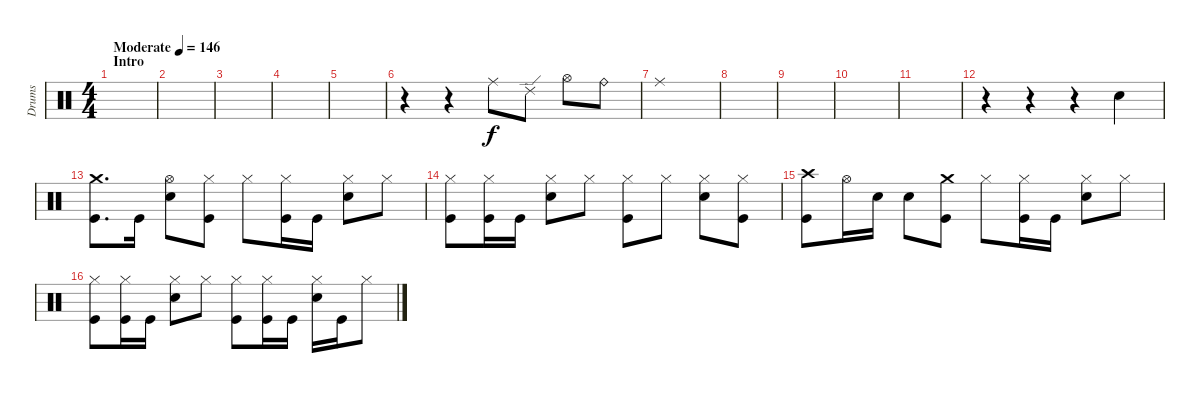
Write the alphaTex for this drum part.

\track ("Drums" "Drums") {instrument percussion}
\staff {score}
\articulation defaults
\ts (4 4)
\section ("" "Intro")
\tempo (146 "Moderate")
\clef neutral
\ks c
|
|
|
|
|
r.4 r.4 "Ride (middle)".8 "Ride (edge) 2".8 "Hi-Hat (open)".8 "Ride (bell)".8 |
"Ride (middle)".1 |
|
|
|
|
r.4 r.4 r.4 "Electric Snare (hit)".4 |
("Crash medium (hit)" "Kick (hit)").8{d} "Kick (hit)".16 ("Hi-Hat (open)" "Electric Snare (hit)").8 ("Hi-Hat (closed)" "Kick (hit)").8 "Hi-Hat (closed)".8 ("Hi-Hat (closed)" "Kick (hit)").16 "Kick (hit)".16 ("Hi-Hat (closed)" "Electric Snare (hit)").8 "Hi-Hat (closed)".8 |
("Hi-Hat (closed)" "Kick (hit)").8 ("Hi-Hat (closed)" "Kick (hit)").16 "Kick (hit)".16 ("Hi-Hat (closed)" "Electric Snare (hit)").8 "Hi-Hat (closed)".8 ("Hi-Hat (closed)" "Kick (hit)").8 "Hi-Hat (closed)".8 ("Hi-Hat (closed)" "Electric Snare (hit)").8 ("Hi-Hat (closed)" "Kick (hit)").8 |
("Crash high (hit)" "Kick (hit)").8 "Hi-Hat (open)".16 "Electric Snare (hit)".16 "Electric Snare (hit)".8 ("Crash medium (hit)" "Kick (hit)").8 "Hi-Hat (closed)".8 ("Hi-Hat (closed)" "Kick (hit)").16 "Kick (hit)".16 ("Hi-Hat (closed)" "Electric Snare (hit)").8 "Hi-Hat (closed)".8 |
("Hi-Hat (closed)" "Kick (hit)").8 ("Hi-Hat (closed)" "Kick (hit)").16 "Kick (hit)".16 ("Hi-Hat (closed)" "Electric Snare (hit)").8 "Hi-Hat (closed)".8 ("Hi-Hat (closed)" "Kick (hit)").8 ("Hi-Hat (closed)" "Kick (hit)").16 "Kick (hit)".16 ("Hi-Hat (closed)" "Electric Snare (hit)").16 "Kick (hit)".16 "Hi-Hat (closed)".8
